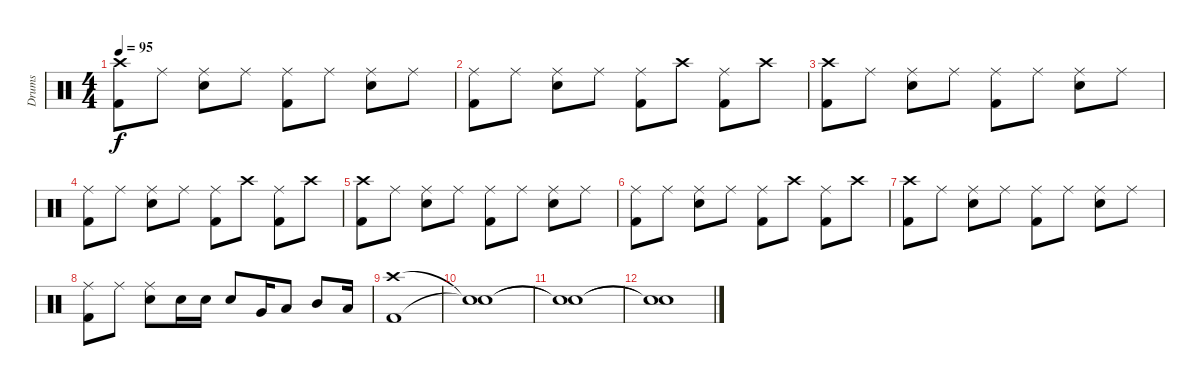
\track ("Drums" "Drums") {instrument percussion}
\staff {score}
\articulation defaults
\ts (4 4)
\tempo 95
\clef neutral
\ks c
("Kick (hit) 2" "Crash high (hit)").8{dy f} "Ride (middle)".8 ("Snare (hit) 2" "Ride (middle)").8 "Ride (middle)".8 ("Kick (hit) 2" "Ride (middle)").8 "Ride (middle)".8 ("Snare (hit) 2" "Ride (middle)").8 "Ride (middle)".8 |
("Kick (hit) 2" "Ride (middle)").8 "Ride (middle)".8 ("Snare (hit) 2" "Ride (middle)").8 "Ride (middle)".8 ("Kick (hit) 2" "Ride (middle)").8 "Crash high (hit)".8 ("Kick (hit) 2" "Ride (middle)").8 "Crash high (hit)".8 |
("Kick (hit) 2" "Crash high (hit)").8 "Ride (middle)".8 ("Snare (hit) 2" "Ride (middle)").8 "Ride (middle)".8 ("Kick (hit) 2" "Ride (middle)").8 "Ride (middle)".8 ("Snare (hit) 2" "Ride (middle)").8 "Ride (middle)".8 |
("Kick (hit) 2" "Ride (middle)").8 "Ride (middle)".8 ("Snare (hit) 2" "Ride (middle)").8 "Ride (middle)".8 ("Kick (hit) 2" "Ride (middle)").8 "Crash high (hit)".8 ("Kick (hit) 2" "Ride (middle)").8 "Crash high (hit)".8 |
("Kick (hit) 2" "Crash high (hit)").8 "Ride (middle)".8 ("Snare (hit) 2" "Ride (middle)").8 "Ride (middle)".8 ("Kick (hit) 2" "Ride (middle)").8 "Ride (middle)".8 ("Snare (hit) 2" "Ride (middle)").8 "Ride (middle)".8 |
("Kick (hit) 2" "Ride (middle)").8 "Ride (middle)".8 ("Snare (hit) 2" "Ride (middle)").8 "Ride (middle)".8 ("Kick (hit) 2" "Ride (middle)").8 "Crash high (hit)".8 ("Kick (hit) 2" "Ride (middle)").8 "Crash high (hit)".8 |
("Kick (hit) 2" "Crash high (hit)").8 "Ride (middle)".8 ("Snare (hit) 2" "Ride (middle)").8 "Ride (middle)".8 ("Kick (hit) 2" "Ride (middle)").8 "Ride (middle)".8 ("Snare (hit) 2" "Ride (middle)").8 "Ride (middle)".8 |
("Kick (hit) 2" "Ride (middle)").8 "Ride (middle)".8 ("Snare (hit) 2" "Ride (middle)").8 "Snare (hit) 2".16 "Snare (hit) 2".16 "Snare (hit) 2".8 "Very Low Tom (hit)".16 "Low Tom (hit)".8 "Mid Tom (hit)".8 "Low Tom (hit)".16 |
("Kick (hit) 2" "Crash high (hit)").1 |
("Snare (hit)"{t} "Snare (hit)"{t}).1 |
("Snare (hit)"{t} "Snare (hit)"{t}).1 |
("Snare (hit)"{t} "Snare (hit)"{t}).1
